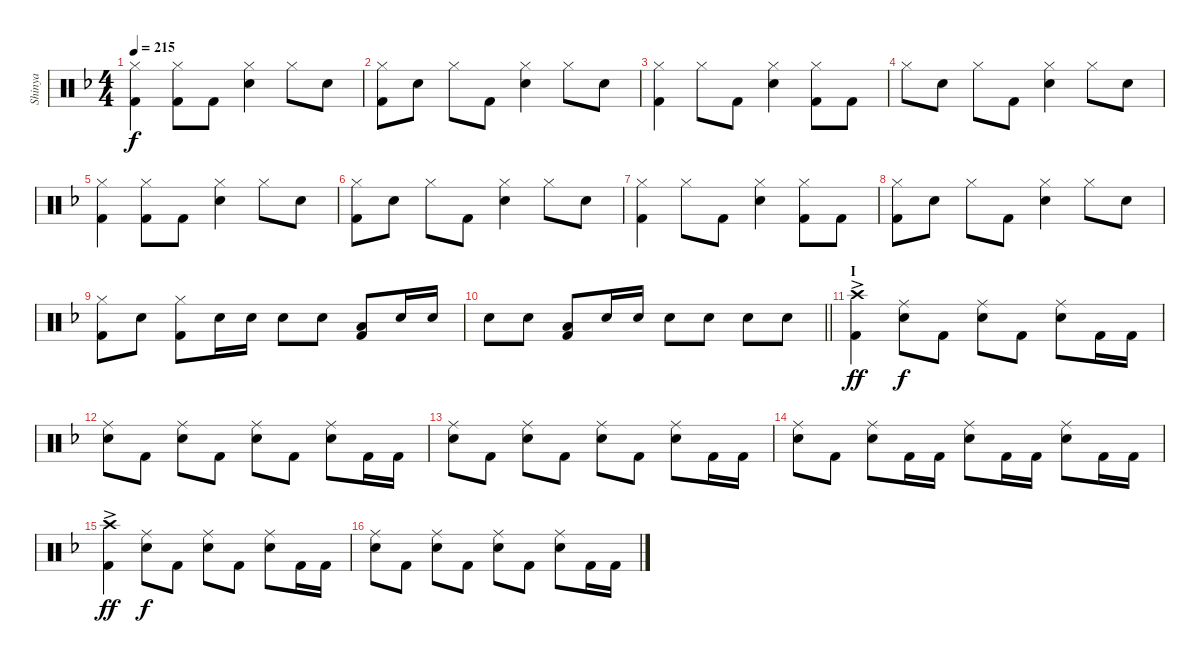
\track ("Shinya" "Shinya") {instrument percussion}
\staff {score}
\articulation defaults
\ts (4 4)
\tempo 215
\clef neutral
\ks f
("Hi-Hat (closed)" "Kick (hit) 2").4{dy f} ("Hi-Hat (closed)" "Kick (hit) 2").8 "Kick (hit) 2".8 ("Hi-Hat (closed)" "Snare (hit) 2").4 "Hi-Hat (closed)".8 "Snare (hit) 2".8 |
("Hi-Hat (closed)" "Kick (hit) 2").8 "Snare (hit) 2".8 "Hi-Hat (closed)".8 "Kick (hit) 2".8 ("Hi-Hat (closed)" "Snare (hit) 2").4 "Hi-Hat (closed)".8 "Snare (hit) 2".8 |
("Hi-Hat (closed)" "Kick (hit) 2").4 "Hi-Hat (closed)".8 "Kick (hit) 2".8 ("Hi-Hat (closed)" "Snare (hit) 2").4 ("Hi-Hat (closed)" "Kick (hit) 2").8 "Kick (hit) 2".8 |
"Hi-Hat (closed)".8 "Snare (hit) 2".8 "Hi-Hat (closed)".8 "Kick (hit) 2".8 ("Hi-Hat (closed)" "Snare (hit) 2").4 "Hi-Hat (closed)".8 "Snare (hit) 2".8 |
("Hi-Hat (closed)" "Kick (hit) 2").4 ("Hi-Hat (closed)" "Kick (hit) 2").8 "Kick (hit) 2".8 ("Hi-Hat (closed)" "Snare (hit) 2").4 "Hi-Hat (closed)".8 "Snare (hit) 2".8 |
("Hi-Hat (closed)" "Kick (hit) 2").8 "Snare (hit) 2".8 "Hi-Hat (closed)".8 "Kick (hit) 2".8 ("Hi-Hat (closed)" "Snare (hit) 2").4 "Hi-Hat (closed)".8 "Snare (hit) 2".8 |
("Hi-Hat (closed)" "Kick (hit) 2").4 "Hi-Hat (closed)".8 "Kick (hit) 2".8 ("Hi-Hat (closed)" "Snare (hit) 2").4 ("Hi-Hat (closed)" "Kick (hit) 2").8 "Kick (hit) 2".8 |
("Hi-Hat (closed)" "Kick (hit) 2").8 "Snare (hit) 2".8 "Hi-Hat (closed)".8 "Kick (hit) 2".8 ("Hi-Hat (closed)" "Snare (hit) 2").4 "Hi-Hat (closed)".8 "Snare (hit) 2".8 |
("Hi-Hat (closed)" "Kick (hit) 2").8 "Snare (hit) 2".8 ("Hi-Hat (closed)" "Kick (hit) 2").8 "Snare (hit) 2".16 "Snare (hit) 2".16 "Snare (hit) 2".8 "Snare (hit) 2".8 ("Low Tom (hit)" "Kick (hit) 2").8 "Snare (hit) 2".16 "Snare (hit) 2".16 |
\barLineRight lightlight "Snare (hit) 2".8 "Snare (hit) 2".8
("Low Tom (hit)" "Kick (hit) 2").8 "Snare (hit) 2".16 "Snare (hit) 2".16 "Snare (hit) 2".8 "Snare (hit) 2".8 "Snare (hit) 2".8 "Snare (hit) 2".8 |
\section ("" "I")
("Crash high (hit)"{ac} "Kick (hit) 2").4{dy ff} ("Ride (middle)" "Snare (hit) 2").8{dy f} "Kick (hit) 2".8 ("Ride (middle)" "Snare (hit) 2").8 "Kick (hit) 2".8 ("Ride (middle)" "Snare (hit) 2").8 "Kick (hit) 2".16 "Kick (hit) 2".16 |
("Ride (middle)" "Snare (hit) 2").8 "Kick (hit) 2".8 ("Ride (middle)" "Snare (hit) 2").8 "Kick (hit) 2".8 ("Ride (middle)" "Snare (hit) 2").8 "Kick (hit) 2".8 ("Ride (middle)" "Snare (hit) 2").8 "Kick (hit) 2".16 "Kick (hit) 2".16 |
("Ride (middle)" "Snare (hit) 2").8 "Kick (hit) 2".8 ("Ride (middle)" "Snare (hit) 2").8 "Kick (hit) 2".8 ("Ride (middle)" "Snare (hit) 2").8 "Kick (hit) 2".8 ("Ride (middle)" "Snare (hit) 2").8 "Kick (hit) 2".16 "Kick (hit) 2".16 |
("Ride (middle)" "Snare (hit) 2").8 "Kick (hit) 2".8 ("Ride (middle)" "Snare (hit) 2").8 "Kick (hit) 2".16 "Kick (hit) 2".16 ("Ride (middle)" "Snare (hit) 2").8 "Kick (hit) 2".16 "Kick (hit) 2".16 ("Ride (middle)" "Snare (hit) 2").8 "Kick (hit) 2".16 "Kick (hit) 2".16 |
("Crash high (hit)"{ac} "Kick (hit) 2").4{dy ff} ("Ride (middle)" "Snare (hit) 2").8{dy f} "Kick (hit) 2".8 ("Ride (middle)" "Snare (hit) 2").8 "Kick (hit) 2".8 ("Ride (middle)" "Snare (hit) 2").8 "Kick (hit) 2".16 "Kick (hit) 2".16 |
("Ride (middle)" "Snare (hit) 2").8 "Kick (hit) 2".8 ("Ride (middle)" "Snare (hit) 2").8 "Kick (hit) 2".8 ("Ride (middle)" "Snare (hit) 2").8 "Kick (hit) 2".8 ("Ride (middle)" "Snare (hit) 2").8 "Kick (hit) 2".16 "Kick (hit) 2".16
